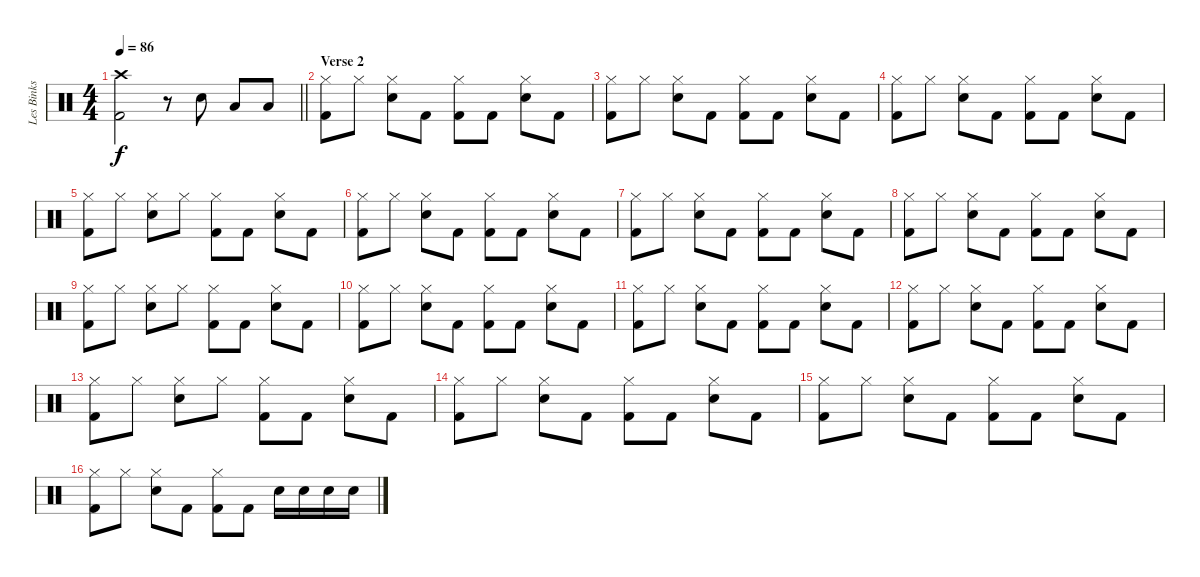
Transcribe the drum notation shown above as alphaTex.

\track ("Les Binks" "Les Binks") {instrument percussion}
\staff {score}
\articulation defaults
\ts (4 4)
\tempo 86
\clef neutral
\barLineRight lightlight
\ks c
("Crash high (hit)" "Kick (hit) 2").2{dy f} r.8 "Snare (hit) 2".8 "Low Tom (hit)".8 "Low Floor Tom (hit)".8 |
\section ("" "Verse 2")
("Hi-Hat (closed)" "Kick (hit) 2").8 "Hi-Hat (closed)".8 ("Hi-Hat (closed)" "Snare (hit) 2").8 "Kick (hit) 2".8 ("Hi-Hat (closed)" "Kick (hit) 2").8 "Kick (hit) 2".8 ("Hi-Hat (closed)" "Snare (hit) 2").8 "Kick (hit) 2".8 |
("Hi-Hat (closed)" "Kick (hit) 2").8 "Hi-Hat (closed)".8 ("Hi-Hat (closed)" "Snare (hit) 2").8 "Kick (hit) 2".8 ("Hi-Hat (closed)" "Kick (hit) 2").8 "Kick (hit) 2".8 ("Hi-Hat (closed)" "Snare (hit) 2").8 "Kick (hit) 2".8 |
("Hi-Hat (closed)" "Kick (hit) 2").8 "Hi-Hat (closed)".8 ("Hi-Hat (closed)" "Snare (hit) 2").8 "Kick (hit) 2".8 ("Hi-Hat (closed)" "Kick (hit) 2").8 "Kick (hit) 2".8 ("Hi-Hat (closed)" "Snare (hit) 2").8 "Kick (hit) 2".8 |
("Hi-Hat (closed)" "Kick (hit) 2").8 "Hi-Hat (closed)".8 ("Snare (hit) 2" "Hi-Hat (closed)").8 "Hi-Hat (closed)".8 ("Hi-Hat (closed)" "Kick (hit) 2").8 "Kick (hit) 2".8 ("Hi-Hat (closed)" "Snare (hit) 2").8 "Kick (hit) 2".8 |
("Hi-Hat (closed)" "Kick (hit) 2").8 "Hi-Hat (closed)".8 ("Hi-Hat (closed)" "Snare (hit) 2").8 "Kick (hit) 2".8 ("Hi-Hat (closed)" "Kick (hit) 2").8 "Kick (hit) 2".8 ("Hi-Hat (closed)" "Snare (hit) 2").8 "Kick (hit) 2".8 |
("Hi-Hat (closed)" "Kick (hit) 2").8 "Hi-Hat (closed)".8 ("Hi-Hat (closed)" "Snare (hit) 2").8 "Kick (hit) 2".8 ("Hi-Hat (closed)" "Kick (hit) 2").8 "Kick (hit) 2".8 ("Hi-Hat (closed)" "Snare (hit) 2").8 "Kick (hit) 2".8 |
("Hi-Hat (closed)" "Kick (hit) 2").8 "Hi-Hat (closed)".8 ("Hi-Hat (closed)" "Snare (hit) 2").8 "Kick (hit) 2".8 ("Hi-Hat (closed)" "Kick (hit) 2").8 "Kick (hit) 2".8 ("Hi-Hat (closed)" "Snare (hit) 2").8 "Kick (hit) 2".8 |
("Hi-Hat (closed)" "Kick (hit) 2").8 "Hi-Hat (closed)".8 ("Snare (hit) 2" "Hi-Hat (closed)").8 "Hi-Hat (closed)".8 ("Hi-Hat (closed)" "Kick (hit) 2").8 "Kick (hit) 2".8 ("Hi-Hat (closed)" "Snare (hit) 2").8 "Kick (hit) 2".8 |
("Hi-Hat (closed)" "Kick (hit) 2").8 "Hi-Hat (closed)".8 ("Hi-Hat (closed)" "Snare (hit) 2").8 "Kick (hit) 2".8 ("Hi-Hat (closed)" "Kick (hit) 2").8 "Kick (hit) 2".8 ("Hi-Hat (closed)" "Snare (hit) 2").8 "Kick (hit) 2".8 |
("Hi-Hat (closed)" "Kick (hit) 2").8 "Hi-Hat (closed)".8 ("Hi-Hat (closed)" "Snare (hit) 2").8 "Kick (hit) 2".8 ("Hi-Hat (closed)" "Kick (hit) 2").8 "Kick (hit) 2".8 ("Hi-Hat (closed)" "Snare (hit) 2").8 "Kick (hit) 2".8 |
("Hi-Hat (closed)" "Kick (hit) 2").8 "Hi-Hat (closed)".8 ("Hi-Hat (closed)" "Snare (hit) 2").8 "Kick (hit) 2".8 ("Hi-Hat (closed)" "Kick (hit) 2").8 "Kick (hit) 2".8 ("Hi-Hat (closed)" "Snare (hit) 2").8 "Kick (hit) 2".8 |
("Hi-Hat (closed)" "Kick (hit) 2").8 "Hi-Hat (closed)".8 ("Snare (hit) 2" "Hi-Hat (closed)").8 "Hi-Hat (closed)".8 ("Hi-Hat (closed)" "Kick (hit) 2").8 "Kick (hit) 2".8 ("Hi-Hat (closed)" "Snare (hit) 2").8 "Kick (hit) 2".8 |
("Hi-Hat (closed)" "Kick (hit) 2").8 "Hi-Hat (closed)".8 ("Hi-Hat (closed)" "Snare (hit) 2").8 "Kick (hit) 2".8 ("Hi-Hat (closed)" "Kick (hit) 2").8 "Kick (hit) 2".8 ("Hi-Hat (closed)" "Snare (hit) 2").8 "Kick (hit) 2".8 |
("Hi-Hat (closed)" "Kick (hit) 2").8 "Hi-Hat (closed)".8 ("Hi-Hat (closed)" "Snare (hit) 2").8 "Kick (hit) 2".8 ("Hi-Hat (closed)" "Kick (hit) 2").8 "Kick (hit) 2".8 ("Hi-Hat (closed)" "Snare (hit) 2").8 "Kick (hit) 2".8 |
("Hi-Hat (closed)" "Kick (hit) 2").8 "Hi-Hat (closed)".8 ("Hi-Hat (closed)" "Snare (hit) 2").8 "Kick (hit) 2".8 ("Hi-Hat (closed)" "Kick (hit) 2").8 "Kick (hit) 2".8 "Snare (hit) 2".16 "Snare (hit) 2".16 "Snare (hit) 2".16 "Snare (hit) 2".16
